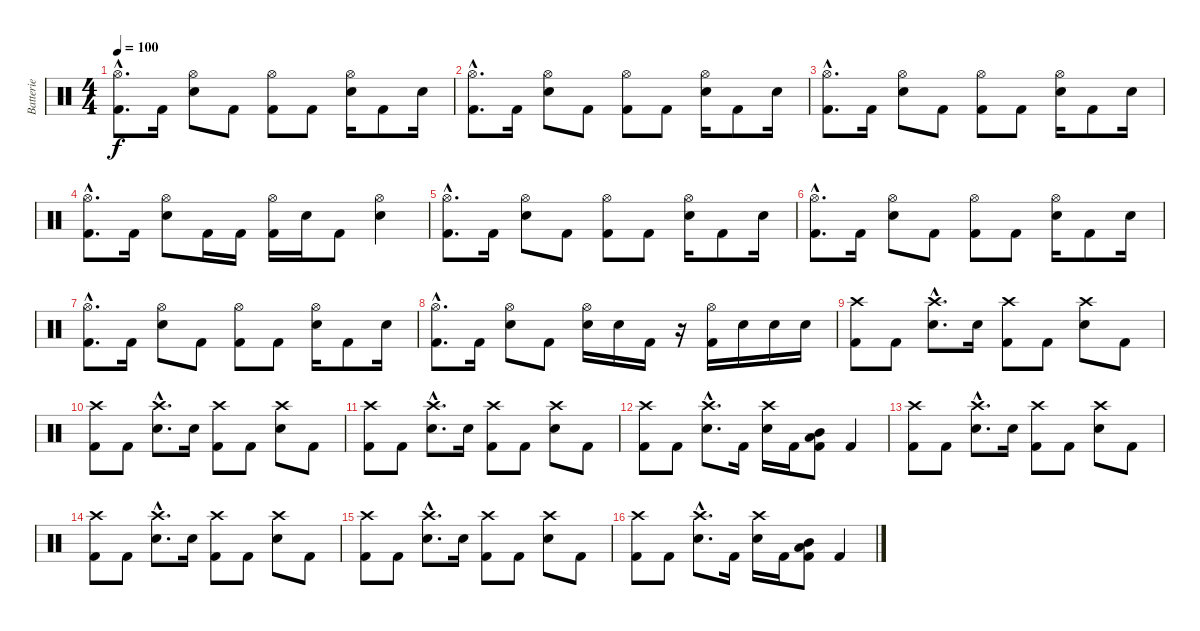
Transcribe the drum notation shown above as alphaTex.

\track ("Batterie" "Batterie") {instrument percussion}
\staff {score}
\articulation defaults
\ts (4 4)
\tempo 100
\clef neutral
\ks c
("Hi-Hat (open)"{hac} "Kick (hit) 2"{hac}).8{d dy f} "Kick (hit) 2".16 ("Hi-Hat (open)" "Snare (hit) 2").8 "Kick (hit) 2".8 ("Hi-Hat (open)" "Kick (hit) 2").8 "Kick (hit) 2".8 ("Hi-Hat (open)" "Snare (hit) 2").16 "Kick (hit) 2".8 "Snare (hit) 2".16 |
("Hi-Hat (open)"{hac} "Kick (hit) 2"{hac}).8{d} "Kick (hit) 2".16 ("Hi-Hat (open)" "Snare (hit) 2").8 "Kick (hit) 2".8 ("Hi-Hat (open)" "Kick (hit) 2").8 "Kick (hit) 2".8 ("Hi-Hat (open)" "Snare (hit) 2").16 "Kick (hit) 2".8 "Snare (hit) 2".16 |
("Hi-Hat (open)"{hac} "Kick (hit) 2"{hac}).8{d} "Kick (hit) 2".16 ("Hi-Hat (open)" "Snare (hit) 2").8 "Kick (hit) 2".8 ("Hi-Hat (open)" "Kick (hit) 2").8 "Kick (hit) 2".8 ("Hi-Hat (open)" "Snare (hit) 2").16 "Kick (hit) 2".8 "Snare (hit) 2".16 |
("Hi-Hat (open)"{hac} "Kick (hit) 2"{hac}).8{d} "Kick (hit) 2".16 ("Hi-Hat (open)" "Snare (hit) 2").8 "Kick (hit) 2".16 "Kick (hit) 2".16 ("Hi-Hat (open)" "Kick (hit) 2").16 "Snare (hit) 2".16 "Kick (hit) 2".8 ("Hi-Hat (open)" "Snare (hit) 2"{tr (38 32)}).4 |
("Hi-Hat (open)"{hac} "Kick (hit) 2"{hac}).8{d} "Kick (hit) 2".16 ("Hi-Hat (open)" "Snare (hit) 2").8 "Kick (hit) 2".8 ("Hi-Hat (open)" "Kick (hit) 2").8 "Kick (hit) 2".8 ("Hi-Hat (open)" "Snare (hit) 2").16 "Kick (hit) 2".8 "Snare (hit) 2".16 |
("Hi-Hat (open)"{hac} "Kick (hit) 2"{hac}).8{d} "Kick (hit) 2".16 ("Hi-Hat (open)" "Snare (hit) 2").8 "Kick (hit) 2".8 ("Hi-Hat (open)" "Kick (hit) 2").8 "Kick (hit) 2".8 ("Hi-Hat (open)" "Snare (hit) 2").16 "Kick (hit) 2".8 "Snare (hit) 2".16 |
("Hi-Hat (open)"{hac} "Kick (hit) 2"{hac}).8{d} "Kick (hit) 2".16 ("Hi-Hat (open)" "Snare (hit) 2").8 "Kick (hit) 2".8 ("Hi-Hat (open)" "Kick (hit) 2").8 "Kick (hit) 2".8 ("Hi-Hat (open)" "Snare (hit) 2").16 "Kick (hit) 2".8 "Snare (hit) 2".16 |
("Hi-Hat (open)"{hac} "Kick (hit) 2"{hac}).8{d} "Kick (hit) 2".16 ("Hi-Hat (open)" "Snare (hit) 2").8 "Kick (hit) 2".8 ("Hi-Hat (open)" "Snare (hit) 2").16 "Snare (hit) 2".16 "Kick (hit) 2".16 r.16 ("Hi-Hat (open)" "Kick (hit) 2").16 "Snare (hit) 2".16 "Snare (hit) 2".16 "Snare (hit) 2".16 |
("Crash high (hit)" "Kick (hit) 2").8 "Kick (hit) 2".8 ("Crash high (hit)"{hac} "Snare (hit) 2"{hac}).8{d} "Snare (hit) 2".16 ("Crash high (hit)" "Kick (hit) 2").8 "Kick (hit) 2".8 ("Crash high (hit)" "Snare (hit) 2").8 "Kick (hit) 2".8 |
("Crash high (hit)" "Kick (hit) 2").8 "Kick (hit) 2".8 ("Crash high (hit)"{hac} "Snare (hit) 2"{hac}).8{d} "Snare (hit) 2".16 ("Crash high (hit)" "Kick (hit) 2").8 "Kick (hit) 2".8 ("Crash high (hit)" "Snare (hit) 2").8 "Kick (hit) 2".8 |
("Crash high (hit)" "Kick (hit) 2").8 "Kick (hit) 2".8 ("Crash high (hit)"{hac} "Snare (hit) 2"{hac}).8{d} "Snare (hit) 2".16 ("Crash high (hit)" "Kick (hit) 2").8 "Kick (hit) 2".8 ("Crash high (hit)" "Snare (hit) 2").8 "Kick (hit) 2".8 |
("Crash high (hit)" "Kick (hit) 2").8 "Kick (hit) 2".8 ("Crash high (hit)"{hac} "Snare (hit) 2"{hac}).8{d} "Kick (hit) 2".16 ("Crash high (hit)" "Snare (hit) 2").16 "Kick (hit) 2".16 ("Low Tom (hit)" "Mid Tom (hit)" "Kick (hit) 2").8 "Kick (hit) 2"{tr (36 32)}.4 |
("Crash high (hit)" "Kick (hit) 2").8 "Kick (hit) 2".8 ("Crash high (hit)"{hac} "Snare (hit) 2"{hac}).8{d} "Snare (hit) 2".16 ("Crash high (hit)" "Kick (hit) 2").8 "Kick (hit) 2".8 ("Crash high (hit)" "Snare (hit) 2").8 "Kick (hit) 2".8 |
("Crash high (hit)" "Kick (hit) 2").8 "Kick (hit) 2".8 ("Crash high (hit)"{hac} "Snare (hit) 2"{hac}).8{d} "Snare (hit) 2".16 ("Crash high (hit)" "Kick (hit) 2").8 "Kick (hit) 2".8 ("Crash high (hit)" "Snare (hit) 2").8 "Kick (hit) 2".8 |
("Crash high (hit)" "Kick (hit) 2").8 "Kick (hit) 2".8 ("Crash high (hit)"{hac} "Snare (hit) 2"{hac}).8{d} "Snare (hit) 2".16 ("Crash high (hit)" "Kick (hit) 2").8 "Kick (hit) 2".8 ("Crash high (hit)" "Snare (hit) 2").8 "Kick (hit) 2".8 |
("Crash high (hit)" "Kick (hit) 2").8 "Kick (hit) 2".8 ("Crash high (hit)"{hac} "Snare (hit) 2"{hac}).8{d} "Kick (hit) 2".16 ("Crash high (hit)" "Snare (hit) 2").16 "Kick (hit) 2".16 ("Low Tom (hit)" "Mid Tom (hit)" "Kick (hit) 2").8 "Kick (hit) 2"{tr (36 32)}.4
